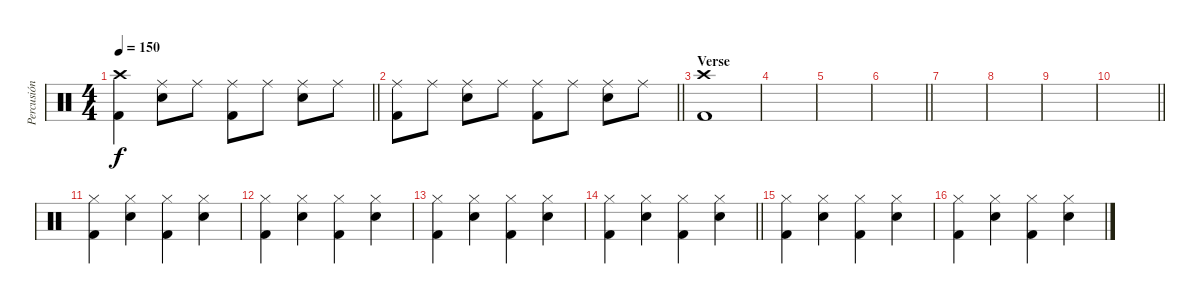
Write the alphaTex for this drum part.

\track ("Percusión" "Percusión") {instrument percussion}
\staff {score}
\articulation defaults
\ts (4 4)
\tempo 150
\clef neutral
\barLineRight lightlight
\ks c
("Crash high (hit)" "Kick (hit) 2").4{dy f} ("Ride (middle)" "Snare (hit) 2").8 "Ride (middle)".8 ("Ride (middle)" "Kick (hit) 2").8 "Ride (middle)".8 ("Ride (middle)" "Snare (hit) 2").8 "Ride (middle)".8 |
\barLineRight lightlight
("Ride (middle)" "Kick (hit) 2").8 "Ride (middle)".8 ("Ride (middle)" "Snare (hit) 2").8 "Ride (middle)".8 ("Ride (middle)" "Kick (hit) 2").8 "Ride (middle)".8 ("Ride (middle)" "Snare (hit) 2").8 "Ride (middle)".8 |
\section ("" "Verse")
("Crash high (hit)" "Kick (hit) 2").1 |
|
|
\barLineRight lightlight
|
|
|
|
\barLineRight lightlight
|
("Hi-Hat (closed)" "Kick (hit) 2").4 ("Hi-Hat (closed)" "Snare (hit) 2").4 ("Hi-Hat (closed)" "Kick (hit) 2").4 ("Hi-Hat (closed)" "Snare (hit) 2").4 |
("Hi-Hat (closed)" "Kick (hit) 2").4 ("Hi-Hat (closed)" "Snare (hit) 2").4 ("Hi-Hat (closed)" "Kick (hit) 2").4 ("Hi-Hat (closed)" "Snare (hit) 2").4 |
("Hi-Hat (closed)" "Kick (hit) 2").4 ("Hi-Hat (closed)" "Snare (hit) 2").4 ("Hi-Hat (closed)" "Kick (hit) 2").4 ("Hi-Hat (closed)" "Snare (hit) 2").4 |
\barLineRight lightlight
("Hi-Hat (closed)" "Kick (hit) 2").4 ("Hi-Hat (closed)" "Snare (hit) 2").4 ("Hi-Hat (closed)" "Kick (hit) 2").4 ("Hi-Hat (closed)" "Snare (hit) 2").4 |
("Hi-Hat (closed)" "Kick (hit) 2").4 ("Hi-Hat (closed)" "Snare (hit) 2").4 ("Hi-Hat (closed)" "Kick (hit) 2").4 ("Hi-Hat (closed)" "Snare (hit) 2").4 |
("Hi-Hat (closed)" "Kick (hit) 2").4 ("Hi-Hat (closed)" "Snare (hit) 2").4 ("Hi-Hat (closed)" "Kick (hit) 2").4 ("Hi-Hat (closed)" "Snare (hit) 2").4
